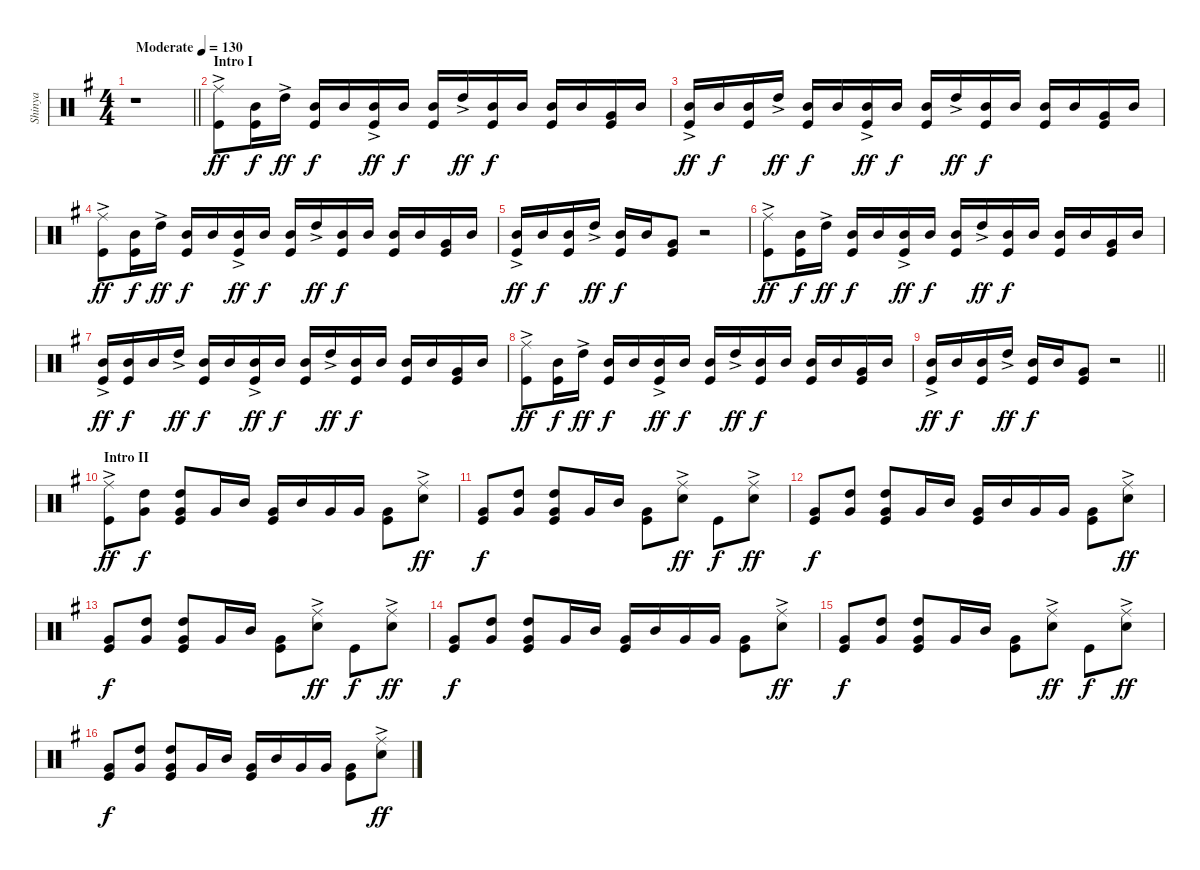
\track ("Shinya" "Shinya") {instrument percussion}
\staff {score}
\articulation defaults
\ts (4 4)
\tempo (130 "Moderate")
\clef neutral
\barLineRight lightlight
\ks eminor
r.1{dy ff} |
\section ("" "Intro I")
("Ride (middle)"{ac} "Kick (hit)").8 ("Mid Tom (hit)" "Kick (hit)").16{dy f} "High Tom (hit)"{ac}.16{dy ff} ("Mid Tom (hit)" "Kick (hit)").16{dy f} "Mid Tom (hit)".16 ("Mid Tom (hit)"{ac} "Kick (hit)").16{dy ff} "Mid Tom (hit)".16{dy f} ("Mid Tom (hit)" "Kick (hit)").16 "High Tom (hit)"{ac}.16{dy ff} ("Mid Tom (hit)" "Kick (hit)").16{dy f} "Mid Tom (hit)".16 ("Mid Tom (hit)" "Kick (hit)").16 "Mid Tom (hit)".16 ("Very Low Tom (hit)" "Kick (hit)").16 "Mid Tom (hit)".16 |
("Mid Tom (hit)"{ac} "Kick (hit)").16{dy ff} "Mid Tom (hit)".16{dy f} ("Mid Tom (hit)" "Kick (hit)").16 "High Tom (hit)"{ac}.16{dy ff} ("Mid Tom (hit)" "Kick (hit)").16{dy f} "Mid Tom (hit)".16 ("Mid Tom (hit)"{ac} "Kick (hit)").16{dy ff} "Mid Tom (hit)".16{dy f} ("Mid Tom (hit)" "Kick (hit)").16 "High Tom (hit)"{ac}.16{dy ff} ("Mid Tom (hit)" "Kick (hit)").16{dy f} "Mid Tom (hit)".16 ("Mid Tom (hit)" "Kick (hit)").16 "Mid Tom (hit)".16 ("Very Low Tom (hit)" "Kick (hit)").16 "Mid Tom (hit)".16 |
("Ride (middle)"{ac} "Kick (hit)").8{dy ff} ("Mid Tom (hit)" "Kick (hit)").16{dy f} "High Tom (hit)"{ac}.16{dy ff} ("Mid Tom (hit)" "Kick (hit)").16{dy f} "Mid Tom (hit)".16 ("Mid Tom (hit)"{ac} "Kick (hit)").16{dy ff} "Mid Tom (hit)".16{dy f} ("Mid Tom (hit)" "Kick (hit)").16 "High Tom (hit)"{ac}.16{dy ff} ("Mid Tom (hit)" "Kick (hit)").16{dy f} "Mid Tom (hit)".16 ("Mid Tom (hit)" "Kick (hit)").16 "Mid Tom (hit)".16 ("Very Low Tom (hit)" "Kick (hit)").16 "Mid Tom (hit)".16 |
("Mid Tom (hit)"{ac} "Kick (hit)").16{dy ff} "Mid Tom (hit)".16{dy f} ("Mid Tom (hit)" "Kick (hit)").16 "High Tom (hit)"{ac}.16{dy ff} ("Mid Tom (hit)" "Kick (hit)").16{dy f} "Mid Tom (hit)".16 ("Very Low Tom (hit)" "Kick (hit)").8 r.2 |
("Ride (middle)"{ac} "Kick (hit)").8{dy ff} ("Mid Tom (hit)" "Kick (hit)").16{dy f} "High Tom (hit)"{ac}.16{dy ff} ("Mid Tom (hit)" "Kick (hit)").16{dy f} "Mid Tom (hit)".16 ("Mid Tom (hit)"{ac} "Kick (hit)").16{dy ff} "Mid Tom (hit)".16{dy f} ("Mid Tom (hit)" "Kick (hit)").16 "High Tom (hit)"{ac}.16{dy ff} ("Mid Tom (hit)" "Kick (hit)").16{dy f} "Mid Tom (hit)".16 ("Mid Tom (hit)" "Kick (hit)").16 "Mid Tom (hit)".16 ("Very Low Tom (hit)" "Kick (hit)").16 "Mid Tom (hit)".16 |
("Mid Tom (hit)"{ac} "Kick (hit)").16{dy ff} ("Mid Tom (hit)" "Kick (hit)").16{dy f} "Mid Tom (hit)".16 "High Tom (hit)"{ac}.16{dy ff} ("Mid Tom (hit)" "Kick (hit)").16{dy f} "Mid Tom (hit)".16 ("Mid Tom (hit)"{ac} "Kick (hit)").16{dy ff} "Mid Tom (hit)".16{dy f} ("Mid Tom (hit)" "Kick (hit)").16 "High Tom (hit)"{ac}.16{dy ff} ("Mid Tom (hit)" "Kick (hit)").16{dy f} "Mid Tom (hit)".16 ("Mid Tom (hit)" "Kick (hit)").16 "Mid Tom (hit)".16 ("Very Low Tom (hit)" "Kick (hit)").16 "Mid Tom (hit)".16 |
("Ride (middle)"{ac} "Kick (hit)").8{dy ff} ("Mid Tom (hit)" "Kick (hit)").16{dy f} "High Tom (hit)"{ac}.16{dy ff} ("Mid Tom (hit)" "Kick (hit)").16{dy f} "Mid Tom (hit)".16 ("Mid Tom (hit)"{ac} "Kick (hit)").16{dy ff} "Mid Tom (hit)".16{dy f} ("Mid Tom (hit)" "Kick (hit)").16 "High Tom (hit)"{ac}.16{dy ff} ("Mid Tom (hit)" "Kick (hit)").16{dy f} "Mid Tom (hit)".16 ("Mid Tom (hit)" "Kick (hit)").16 "Mid Tom (hit)".16 ("Very Low Tom (hit)" "Kick (hit)").16 "Mid Tom (hit)".16 |
\barLineRight lightlight
("Mid Tom (hit)"{ac} "Kick (hit)").16{dy ff} "Mid Tom (hit)".16{dy f} ("Mid Tom (hit)" "Kick (hit)").16 "High Tom (hit)"{ac}.16{dy ff} ("Mid Tom (hit)" "Kick (hit)").16{dy f} "Mid Tom (hit)".16 ("Very Low Tom (hit)" "Kick (hit)").8 r.2 |
\section ("" "Intro II")
("Ride (middle)"{ac} "Kick (hit)").8{dy ff} ("High Tom (hit)" "Very Low Tom (hit)").8{dy f} ("High Tom (hit)" "Very Low Tom (hit)" "Kick (hit)").8 "Very Low Tom (hit)".16 "Mid Tom (hit)".16 ("Very Low Tom (hit)" "Kick (hit)").16 "Mid Tom (hit)".16 "Very Low Tom (hit)".16 "Very Low Tom (hit)".16 ("Very Low Tom (hit)" "Kick (hit)").8 ("Ride (middle)"{ac} "Snare (hit) 2").8{dy ff} |
("Very Low Tom (hit)" "Kick (hit)").8{dy f} ("High Tom (hit)" "Very Low Tom (hit)").8 ("High Tom (hit)" "Very Low Tom (hit)" "Kick (hit)").8 "Very Low Tom (hit)".16 "Mid Tom (hit)".16 ("Very Low Tom (hit)" "Kick (hit)").8 ("Ride (middle)"{ac} "Snare (hit) 2").8{dy ff} "Kick (hit)".8{dy f} ("Ride (middle)"{ac} "Snare (hit) 2").8{dy ff} |
("Very Low Tom (hit)" "Kick (hit)").8{dy f} ("High Tom (hit)" "Very Low Tom (hit)").8 ("High Tom (hit)" "Very Low Tom (hit)" "Kick (hit)").8 "Very Low Tom (hit)".16 "Mid Tom (hit)".16 ("Very Low Tom (hit)" "Kick (hit)").16 "Mid Tom (hit)".16 "Very Low Tom (hit)".16 "Very Low Tom (hit)".16 ("Very Low Tom (hit)" "Kick (hit)").8 ("Ride (middle)"{ac} "Snare (hit) 2").8{dy ff} |
("Very Low Tom (hit)" "Kick (hit)").8{dy f} ("High Tom (hit)" "Very Low Tom (hit)").8 ("High Tom (hit)" "Very Low Tom (hit)" "Kick (hit)").8 "Very Low Tom (hit)".16 "Mid Tom (hit)".16 ("Very Low Tom (hit)" "Kick (hit)").8 ("Ride (middle)"{ac} "Snare (hit) 2").8{dy ff} "Kick (hit)".8{dy f} ("Ride (middle)"{ac} "Snare (hit) 2").8{dy ff} |
("Very Low Tom (hit)" "Kick (hit)").8{dy f} ("High Tom (hit)" "Very Low Tom (hit)").8 ("High Tom (hit)" "Very Low Tom (hit)" "Kick (hit)").8 "Very Low Tom (hit)".16 "Mid Tom (hit)".16 ("Very Low Tom (hit)" "Kick (hit)").16 "Mid Tom (hit)".16 "Very Low Tom (hit)".16 "Very Low Tom (hit)".16 ("Very Low Tom (hit)" "Kick (hit)").8 ("Ride (middle)"{ac} "Snare (hit) 2").8{dy ff} |
("Very Low Tom (hit)" "Kick (hit)").8{dy f} ("High Tom (hit)" "Very Low Tom (hit)").8 ("High Tom (hit)" "Very Low Tom (hit)" "Kick (hit)").8 "Very Low Tom (hit)".16 "Mid Tom (hit)".16 ("Very Low Tom (hit)" "Kick (hit)").8 ("Ride (middle)"{ac} "Snare (hit) 2").8{dy ff} "Kick (hit)".8{dy f} ("Ride (middle)"{ac} "Snare (hit) 2").8{dy ff} |
("Very Low Tom (hit)" "Kick (hit)").8{dy f} ("High Tom (hit)" "Very Low Tom (hit)").8 ("High Tom (hit)" "Very Low Tom (hit)" "Kick (hit)").8 "Very Low Tom (hit)".16 "Mid Tom (hit)".16 ("Very Low Tom (hit)" "Kick (hit)").16 "Mid Tom (hit)".16 "Very Low Tom (hit)".16 "Very Low Tom (hit)".16 ("Very Low Tom (hit)" "Kick (hit)").8 ("Ride (middle)"{ac} "Snare (hit) 2").8{dy ff}
